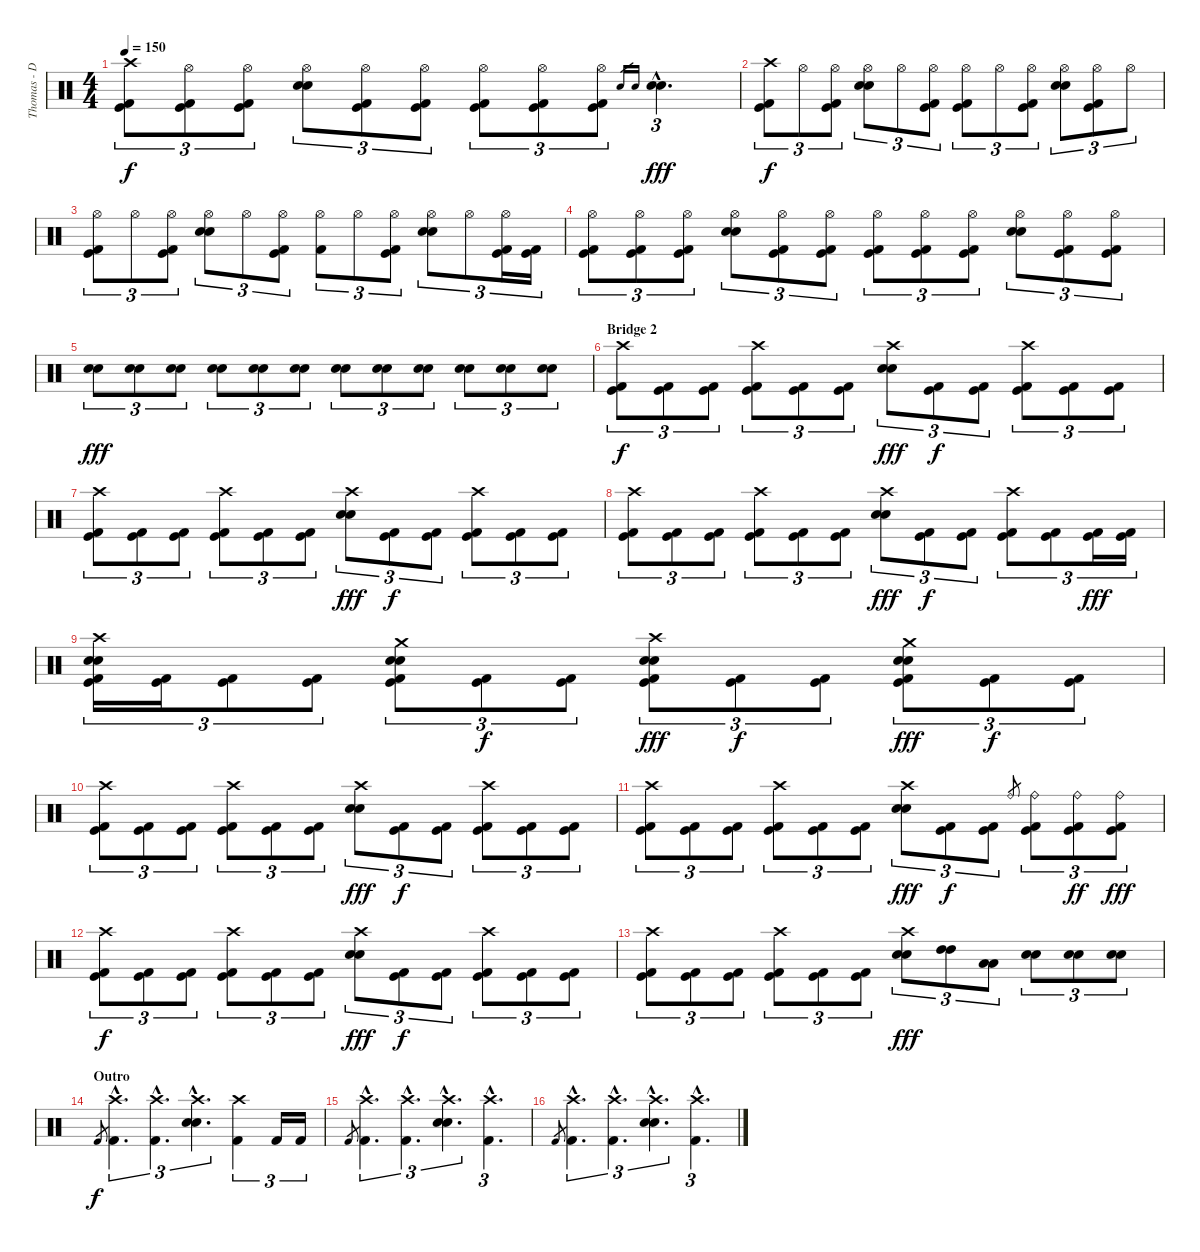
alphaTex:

\track ("Thomas - Drums" "Thomas - D") {instrument percussion}
\staff {score}
\articulation defaults
\ts (4 4)
\tempo 150
\clef neutral
\ks c
("Crash high (hit)" "Kick (hit)" "Kick (hit) 2").8{tu (3 2) dy f} ("Hi-Hat (open)" "Kick (hit)" "Kick (hit) 2").8{tu (3 2)} ("Hi-Hat (open)" "Kick (hit)" "Kick (hit) 2").8{tu (3 2)} ("Hi-Hat (open)" "Electric Snare (hit)" "Electric Snare (hit)").8{tu (3 2)} ("Hi-Hat (open)" "Kick (hit)" "Kick (hit) 2").8{tu (3 2)} ("Hi-Hat (open)" "Kick (hit)" "Kick (hit) 2").8{tu (3 2)} ("Hi-Hat (open)" "Kick (hit)" "Kick (hit) 2").8{tu (3 2)} ("Hi-Hat (open)" "Kick (hit)" "Kick (hit) 2").8{tu (3 2)} ("Hi-Hat (open)" "Kick (hit)" "Kick (hit) 2").8{tu (3 2)} "Electric Snare (hit)".16{gr} "Electric Snare (hit)".16{gr} ("Electric Snare (hit)"{hac} "Electric Snare (hit)"{hac}).4{d tu (3 2) dy fff} |
("Crash high (hit)" "Kick (hit)" "Kick (hit) 2").8{tu (3 2) dy f} "Hi-Hat (open)".8{tu (3 2)} ("Hi-Hat (open)" "Kick (hit)" "Kick (hit) 2").8{tu (3 2)} ("Hi-Hat (open)" "Electric Snare (hit)" "Electric Snare (hit)").8{tu (3 2)} "Hi-Hat (open)".8{tu (3 2)} ("Hi-Hat (open)" "Kick (hit)" "Kick (hit) 2").8{tu (3 2)} ("Hi-Hat (open)" "Kick (hit)" "Kick (hit) 2").8{tu (3 2)} "Hi-Hat (open)".8{tu (3 2)} ("Hi-Hat (open)" "Kick (hit)" "Kick (hit) 2").8{tu (3 2)} ("Hi-Hat (open)" "Electric Snare (hit)" "Electric Snare (hit)").8{tu (3 2)} ("Hi-Hat (open)" "Kick (hit)" "Kick (hit) 2").8{tu (3 2)} "Hi-Hat (open)".8{tu (3 2)} |
("Hi-Hat (open)" "Kick (hit)" "Kick (hit) 2").8{tu (3 2)} "Hi-Hat (open)".8{tu (3 2)} ("Hi-Hat (open)" "Kick (hit)" "Kick (hit) 2").8{tu (3 2)} ("Hi-Hat (open)" "Electric Snare (hit)" "Electric Snare (hit)").8{tu (3 2)} "Hi-Hat (open)".8{tu (3 2)} ("Hi-Hat (open)" "Kick (hit)" "Kick (hit) 2").8{tu (3 2)} ("Hi-Hat (open)" "Kick (hit) 2").8{tu (3 2)} "Hi-Hat (open)".8{tu (3 2)} ("Hi-Hat (open)" "Kick (hit)" "Kick (hit) 2").8{tu (3 2)} ("Hi-Hat (open)" "Electric Snare (hit)" "Electric Snare (hit)").8{tu (3 2)} "Hi-Hat (open)".8{tu (3 2)} ("Hi-Hat (open)" "Kick (hit)" "Kick (hit) 2").16{tu (3 2)} ("Kick (hit)" "Kick (hit) 2").16{tu (3 2)} |
("Hi-Hat (open)" "Kick (hit)" "Kick (hit) 2").8{tu (3 2)} ("Hi-Hat (open)" "Kick (hit)" "Kick (hit) 2").8{tu (3 2)} ("Hi-Hat (open)" "Kick (hit)" "Kick (hit) 2").8{tu (3 2)} ("Hi-Hat (open)" "Electric Snare (hit)" "Electric Snare (hit)").8{tu (3 2)} ("Hi-Hat (open)" "Kick (hit)" "Kick (hit) 2").8{tu (3 2)} ("Hi-Hat (open)" "Kick (hit)" "Kick (hit) 2").8{tu (3 2)} ("Hi-Hat (open)" "Kick (hit)" "Kick (hit) 2").8{tu (3 2)} ("Hi-Hat (open)" "Kick (hit)" "Kick (hit) 2").8{tu (3 2)} ("Hi-Hat (open)" "Kick (hit)" "Kick (hit) 2").8{tu (3 2)} ("Hi-Hat (open)" "Electric Snare (hit)" "Electric Snare (hit)").8{tu (3 2)} ("Hi-Hat (open)" "Kick (hit)" "Kick (hit) 2").8{tu (3 2)} ("Hi-Hat (open)" "Kick (hit)" "Kick (hit) 2").8{tu (3 2)} |
("Electric Snare (hit)" "Electric Snare (hit)").8{tu (3 2) dy fff} ("Electric Snare (hit)" "Electric Snare (hit)").8{tu (3 2)} ("Electric Snare (hit)" "Electric Snare (hit)").8{tu (3 2)} ("Electric Snare (hit)" "Electric Snare (hit)").8{tu (3 2)} ("Electric Snare (hit)" "Electric Snare (hit)").8{tu (3 2)} ("Electric Snare (hit)" "Electric Snare (hit)").8{tu (3 2)} ("Electric Snare (hit)" "Electric Snare (hit)").8{tu (3 2)} ("Electric Snare (hit)" "Electric Snare (hit)").8{tu (3 2)} ("Electric Snare (hit)" "Electric Snare (hit)").8{tu (3 2)} ("Electric Snare (hit)" "Electric Snare (hit)").8{tu (3 2)} ("Electric Snare (hit)" "Electric Snare (hit)").8{tu (3 2)} ("Electric Snare (hit)" "Electric Snare (hit)").8{tu (3 2)} |
\section ("" "Bridge 2")
("Crash high (hit)" "Kick (hit)" "Kick (hit) 2").8{tu (3 2) dy f} ("Kick (hit)" "Kick (hit) 2").8{tu (3 2)} ("Kick (hit)" "Kick (hit) 2").8{tu (3 2)} ("Crash high (hit)" "Kick (hit)" "Kick (hit) 2").8{tu (3 2)} ("Kick (hit)" "Kick (hit) 2").8{tu (3 2)} ("Kick (hit)" "Kick (hit) 2").8{tu (3 2)} ("Crash high (hit)" "Electric Snare (hit)" "Electric Snare (hit)").8{tu (3 2) dy fff} ("Kick (hit)" "Kick (hit) 2").8{tu (3 2) dy f} ("Kick (hit)" "Kick (hit) 2").8{tu (3 2)} ("Crash high (hit)" "Kick (hit)" "Kick (hit) 2").8{tu (3 2)} ("Kick (hit)" "Kick (hit) 2").8{tu (3 2)} ("Kick (hit)" "Kick (hit) 2").8{tu (3 2)} |
("Crash high (hit)" "Kick (hit)" "Kick (hit) 2").8{tu (3 2)} ("Kick (hit)" "Kick (hit) 2").8{tu (3 2)} ("Kick (hit)" "Kick (hit) 2").8{tu (3 2)} ("Crash high (hit)" "Kick (hit)" "Kick (hit) 2").8{tu (3 2)} ("Kick (hit)" "Kick (hit) 2").8{tu (3 2)} ("Kick (hit)" "Kick (hit) 2").8{tu (3 2)} ("Crash high (hit)" "Electric Snare (hit)" "Electric Snare (hit)").8{tu (3 2) dy fff} ("Kick (hit)" "Kick (hit) 2").8{tu (3 2) dy f} ("Kick (hit)" "Kick (hit) 2").8{tu (3 2)} ("Crash high (hit)" "Kick (hit)" "Kick (hit) 2").8{tu (3 2)} ("Kick (hit)" "Kick (hit) 2").8{tu (3 2)} ("Kick (hit)" "Kick (hit) 2").8{tu (3 2)} |
("Crash high (hit)" "Kick (hit)" "Kick (hit) 2").8{tu (3 2)} ("Kick (hit)" "Kick (hit) 2").8{tu (3 2)} ("Kick (hit)" "Kick (hit) 2").8{tu (3 2)} ("Crash high (hit)" "Kick (hit)" "Kick (hit) 2").8{tu (3 2)} ("Kick (hit)" "Kick (hit) 2").8{tu (3 2)} ("Kick (hit)" "Kick (hit) 2").8{tu (3 2)} ("Crash high (hit)" "Electric Snare (hit)" "Electric Snare (hit)").8{tu (3 2) dy fff} ("Kick (hit)" "Kick (hit) 2").8{tu (3 2) dy f} ("Kick (hit)" "Kick (hit) 2").8{tu (3 2)} ("Crash high (hit)" "Kick (hit)" "Kick (hit) 2").8{tu (3 2)} ("Kick (hit)" "Kick (hit) 2").8{tu (3 2)} ("Kick (hit)" "Kick (hit) 2").16{tu (3 2) dy fff} ("Kick (hit)" "Kick (hit) 2").16{tu (3 2)} |
("Crash high (hit)" "Electric Snare (hit)" "Electric Snare (hit)" "Kick (hit)" "Kick (hit) 2").16{tu (3 2)} ("Kick (hit)" "Kick (hit) 2").16{tu (3 2)} ("Kick (hit)" "Kick (hit) 2").8{tu (3 2)} ("Kick (hit)" "Kick (hit) 2").8{tu (3 2)} ("Crash medium (hit)" "Electric Snare (hit)" "Electric Snare (hit)" "Kick (hit)" "Kick (hit) 2").8{tu (3 2)} ("Kick (hit)" "Kick (hit) 2").8{tu (3 2) dy f} ("Kick (hit)" "Kick (hit) 2").8{tu (3 2)} ("Crash high (hit)" "Electric Snare (hit)" "Electric Snare (hit)" "Kick (hit)" "Kick (hit) 2").8{tu (3 2) dy fff} ("Kick (hit)" "Kick (hit) 2").8{tu (3 2) dy f} ("Kick (hit)" "Kick (hit) 2").8{tu (3 2)} ("Crash medium (hit)" "Electric Snare (hit)" "Electric Snare (hit)" "Kick (hit)" "Kick (hit) 2").8{tu (3 2) dy fff} ("Kick (hit)" "Kick (hit) 2").8{tu (3 2) dy f} ("Kick (hit)" "Kick (hit) 2").8{tu (3 2)} |
("Crash high (hit)" "Kick (hit)" "Kick (hit) 2").8{tu (3 2)} ("Kick (hit)" "Kick (hit) 2").8{tu (3 2)} ("Kick (hit)" "Kick (hit) 2").8{tu (3 2)} ("Crash high (hit)" "Kick (hit)" "Kick (hit) 2").8{tu (3 2)} ("Kick (hit)" "Kick (hit) 2").8{tu (3 2)} ("Kick (hit)" "Kick (hit) 2").8{tu (3 2)} ("Crash high (hit)" "Electric Snare (hit)" "Electric Snare (hit)").8{tu (3 2) dy fff} ("Kick (hit)" "Kick (hit) 2").8{tu (3 2) dy f} ("Kick (hit)" "Kick (hit) 2").8{tu (3 2)} ("Crash high (hit)" "Kick (hit)" "Kick (hit) 2").8{tu (3 2)} ("Kick (hit)" "Kick (hit) 2").8{tu (3 2)} ("Kick (hit)" "Kick (hit) 2").8{tu (3 2)} |
("Crash high (hit)" "Kick (hit)" "Kick (hit) 2").8{tu (3 2)} ("Kick (hit)" "Kick (hit) 2").8{tu (3 2)} ("Kick (hit)" "Kick (hit) 2").8{tu (3 2)} ("Crash high (hit)" "Kick (hit)" "Kick (hit) 2").8{tu (3 2)} ("Kick (hit)" "Kick (hit) 2").8{tu (3 2)} ("Kick (hit)" "Kick (hit) 2").8{tu (3 2)} ("Crash high (hit)" "Electric Snare (hit)" "Electric Snare (hit)").8{tu (3 2) dy fff} ("Kick (hit)" "Kick (hit) 2").8{tu (3 2) dy f} ("Kick (hit)" "Kick (hit) 2").8{tu (3 2)} "Ride (bell)".8{gr} ("Ride (bell)" "Kick (hit)" "Kick (hit) 2").8{tu (3 2)} ("Ride (bell)" "Kick (hit)" "Kick (hit) 2").8{tu (3 2) dy ff} ("Ride (bell)" "Kick (hit)" "Kick (hit) 2").8{tu (3 2) dy fff} |
("Crash high (hit)" "Kick (hit)" "Kick (hit) 2").8{tu (3 2) dy f} ("Kick (hit)" "Kick (hit) 2").8{tu (3 2)} ("Kick (hit)" "Kick (hit) 2").8{tu (3 2)} ("Crash high (hit)" "Kick (hit)" "Kick (hit) 2").8{tu (3 2)} ("Kick (hit)" "Kick (hit) 2").8{tu (3 2)} ("Kick (hit)" "Kick (hit) 2").8{tu (3 2)} ("Crash high (hit)" "Electric Snare (hit)" "Electric Snare (hit)").8{tu (3 2) dy fff} ("Kick (hit)" "Kick (hit) 2").8{tu (3 2) dy f} ("Kick (hit)" "Kick (hit) 2").8{tu (3 2)} ("Crash high (hit)" "Kick (hit)" "Kick (hit) 2").8{tu (3 2)} ("Kick (hit)" "Kick (hit) 2").8{tu (3 2)} ("Kick (hit)" "Kick (hit) 2").8{tu (3 2)} |
("Crash high (hit)" "Kick (hit)" "Kick (hit) 2").8{tu (3 2)} ("Kick (hit)" "Kick (hit) 2").8{tu (3 2)} ("Kick (hit)" "Kick (hit) 2").8{tu (3 2)} ("Crash high (hit)" "Kick (hit)" "Kick (hit) 2").8{tu (3 2)} ("Kick (hit)" "Kick (hit) 2").8{tu (3 2)} ("Kick (hit)" "Kick (hit) 2").8{tu (3 2)} ("Crash high (hit)" "Electric Snare (hit)" "Electric Snare (hit)").8{tu (3 2) dy fff} ("High Tom (hit)" "High Tom (hit)").8{tu (3 2)} ("Low Tom (hit)" "Low Tom (hit)").8{tu (3 2)} ("Electric Snare (hit)" "Electric Snare (hit)").8{tu (3 2)} ("Electric Snare (hit)" "Electric Snare (hit)").8{tu (3 2)} ("Electric Snare (hit)" "Electric Snare (hit)").8{tu (3 2)} |
\section ("" "Outro")
"Kick (hit) 2".8{gr dy f} ("Crash high (hit)"{hac} "Kick (hit) 2"{hac}).4{d tu (3 2)} ("Crash high (hit)"{hac} "Kick (hit) 2"{hac}).4{d tu (3 2)} ("Crash high (hit)"{hac} "Electric Snare (hit)"{hac} "Electric Snare (hit)"{hac}).4{d tu (3 2)} ("Crash high (hit)" "Kick (hit) 2").4{tu (3 2)} "Kick (hit) 2".16{tu (3 2)} "Kick (hit) 2".16{tu (3 2)} |
"Kick (hit) 2".8{gr} ("Crash high (hit)"{hac} "Kick (hit) 2"{hac}).4{d tu (3 2)} ("Crash high (hit)"{hac} "Kick (hit) 2"{hac}).4{d tu (3 2)} ("Crash high (hit)"{hac} "Electric Snare (hit)"{hac} "Electric Snare (hit)"{hac}).4{d tu (3 2)} ("Crash high (hit)"{hac} "Kick (hit) 2"{hac}).4{d tu (3 2)} |
"Kick (hit) 2".8{gr} ("Crash high (hit)"{hac} "Kick (hit) 2"{hac}).4{d tu (3 2)} ("Crash high (hit)"{hac} "Kick (hit) 2"{hac}).4{d tu (3 2)} ("Crash high (hit)"{hac} "Electric Snare (hit)"{hac} "Electric Snare (hit)"{hac}).4{d tu (3 2)} ("Crash high (hit)"{hac} "Kick (hit) 2"{hac}).4{d tu (3 2)}
